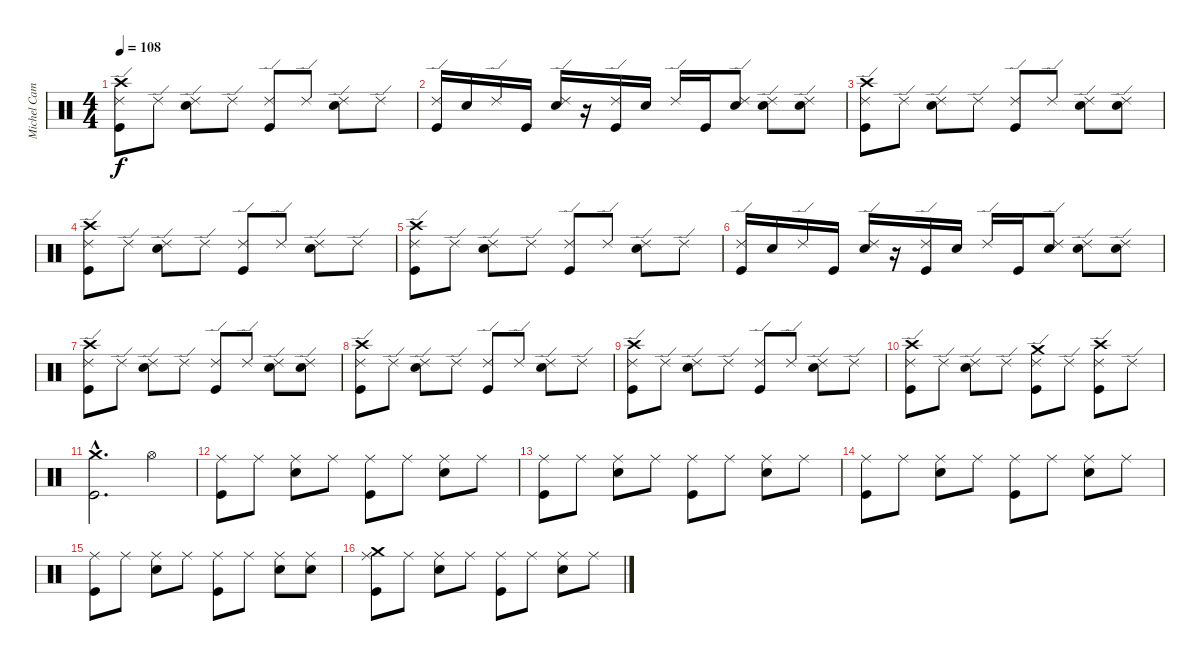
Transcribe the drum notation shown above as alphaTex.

\track ("Michel Camiade" "Michel Cam") {instrument percussion}
\staff {score}
\articulation defaults
\ts (4 4)
\tempo 108
\clef neutral
\ks c
("Crash high (hit)" "Ride (edge) 2" "Kick (hit)").8{dy f} "Ride (edge) 2".8 ("Ride (edge) 2" "Snare (hit) 2").8 "Ride (edge) 2".8 ("Ride (edge) 2" "Kick (hit)").8 "Ride (edge) 2".8 ("Ride (edge) 2" "Snare (hit) 2").8 "Ride (edge) 2".8 |
("Ride (edge) 2" "Kick (hit)").16 "Snare (hit) 2".16 "Ride (edge) 2".16 "Kick (hit)".16 ("Ride (edge) 2" "Snare (hit) 2").16 r.16 ("Ride (edge) 2" "Kick (hit)").16 "Snare (hit) 2".16 "Ride (edge) 2".16 "Kick (hit)".16 ("Ride (edge) 2" "Snare (hit) 2").8 ("Ride (edge) 2" "Snare (hit) 2").8 ("Ride (edge) 2" "Snare (hit) 2").8 |
("Crash high (hit)" "Ride (edge) 2" "Kick (hit)").8 "Ride (edge) 2".8 ("Ride (edge) 2" "Snare (hit) 2").8 "Ride (edge) 2".8 ("Ride (edge) 2" "Kick (hit)").8 "Ride (edge) 2".8 ("Ride (edge) 2" "Snare (hit) 2").8 ("Ride (edge) 2" "Snare (hit) 2").8 |
("Crash high (hit)" "Ride (edge) 2" "Kick (hit)").8 "Ride (edge) 2".8 ("Ride (edge) 2" "Snare (hit) 2").8 "Ride (edge) 2".8 ("Ride (edge) 2" "Kick (hit)").8 "Ride (edge) 2".8 ("Ride (edge) 2" "Snare (hit) 2").8 "Ride (edge) 2".8 |
("Crash high (hit)" "Ride (edge) 2" "Kick (hit)").8 "Ride (edge) 2".8 ("Ride (edge) 2" "Snare (hit) 2").8 "Ride (edge) 2".8 ("Ride (edge) 2" "Kick (hit)").8 "Ride (edge) 2".8 ("Ride (edge) 2" "Snare (hit) 2").8 "Ride (edge) 2".8 |
("Ride (edge) 2" "Kick (hit)").16 "Snare (hit) 2".16 "Ride (edge) 2".16 "Kick (hit)".16 ("Ride (edge) 2" "Snare (hit) 2").16 r.16 ("Ride (edge) 2" "Kick (hit)").16 "Snare (hit) 2".16 "Ride (edge) 2".16 "Kick (hit)".16 ("Ride (edge) 2" "Snare (hit) 2").8 ("Ride (edge) 2" "Snare (hit) 2").8 ("Ride (edge) 2" "Snare (hit) 2").8 |
("Crash high (hit)" "Ride (edge) 2" "Kick (hit)").8 "Ride (edge) 2".8 ("Ride (edge) 2" "Snare (hit) 2").8 "Ride (edge) 2".8 ("Ride (edge) 2" "Kick (hit)").8 "Ride (edge) 2".8 ("Ride (edge) 2" "Snare (hit) 2").8 ("Ride (edge) 2" "Snare (hit) 2").8 |
("Crash high (hit)" "Ride (edge) 2" "Kick (hit)").8 "Ride (edge) 2".8 ("Ride (edge) 2" "Snare (hit) 2").8 "Ride (edge) 2".8 ("Ride (edge) 2" "Kick (hit)").8 "Ride (edge) 2".8 ("Ride (edge) 2" "Snare (hit) 2").8 "Ride (edge) 2".8 |
("Crash high (hit)" "Ride (edge) 2" "Kick (hit)").8 "Ride (edge) 2".8 ("Ride (edge) 2" "Snare (hit) 2").8 "Ride (edge) 2".8 ("Ride (edge) 2" "Kick (hit)").8 "Ride (edge) 2".8 ("Ride (edge) 2" "Snare (hit) 2").8 "Ride (edge) 2".8 |
("Crash high (hit)" "Ride (edge) 2" "Kick (hit)").8 "Ride (edge) 2".8 ("Ride (edge) 2" "Snare (hit) 2").8 "Ride (edge) 2".8 ("Crash medium (hit)" "Ride (edge) 2" "Kick (hit)").8 "Ride (edge) 2".8 ("Crash high (hit)" "Ride (edge) 2" "Kick (hit)").8 "Ride (edge) 2".8 |
("Crash medium (hit)"{hac} "Kick (hit)"{hac}).2{d} "Hi-Hat (open)".4 |
("Ride (middle)" "Kick (hit)").8 "Ride (middle)".8 ("Ride (middle)" "Snare (hit) 2").8 "Ride (middle)".8 ("Ride (middle)" "Kick (hit)").8 "Ride (middle)".8 ("Ride (middle)" "Snare (hit) 2").8 "Ride (middle)".8 |
("Ride (middle)" "Kick (hit)").8 "Ride (middle)".8 ("Ride (middle)" "Snare (hit) 2").8 "Ride (middle)".8 ("Ride (middle)" "Kick (hit)").8 "Ride (middle)".8 ("Ride (middle)" "Snare (hit) 2").8 "Ride (middle)".8 |
("Ride (middle)" "Kick (hit)").8 "Ride (middle)".8 ("Ride (middle)" "Snare (hit) 2").8 "Ride (middle)".8 ("Ride (middle)" "Kick (hit)").8 "Ride (middle)".8 ("Ride (middle)" "Snare (hit) 2").8 "Ride (middle)".8 |
("Ride (middle)" "Kick (hit)").8 "Ride (middle)".8 ("Ride (middle)" "Snare (hit) 2").8 "Ride (middle)".8 ("Ride (middle)" "Kick (hit)").8 "Ride (middle)".8 ("Ride (middle)" "Snare (hit) 2").8 ("Ride (middle)" "Snare (hit) 2").8 |
("Crash medium (hit)" "Ride (middle)" "Kick (hit)").8 "Ride (middle)".8 ("Ride (middle)" "Snare (hit) 2").8 "Ride (middle)".8 ("Ride (middle)" "Kick (hit)").8 "Ride (middle)".8 ("Ride (middle)" "Snare (hit) 2").8 "Ride (middle)".8
